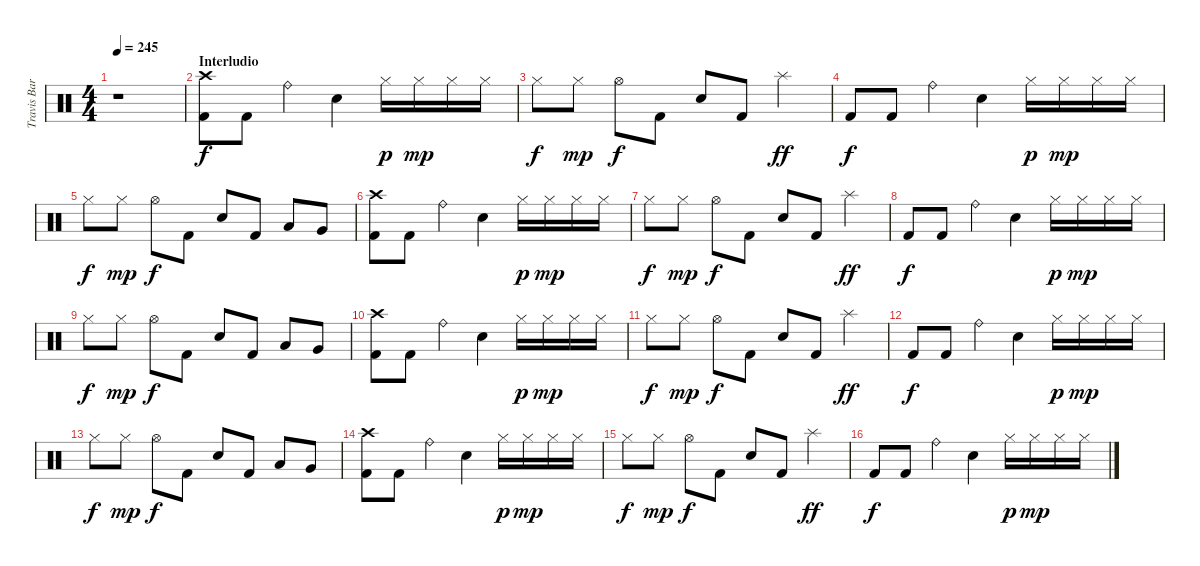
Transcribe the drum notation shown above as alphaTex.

\track ("Travis Barker - Batería" "Travis Bar") {instrument percussion}
\staff {score}
\articulation defaults
\ts (4 4)
\tempo 245
\clef neutral
\ks c
r.1{dy f} |
\section ("" "Interludio")
("Crash high (hit)" "Kick (hit) 2").8 "Kick (hit) 2".8 "Ride (bell)".4 "Electric Snare (hit)".4 "Hi-Hat (closed)".16{dy p} "Hi-Hat (closed)".16{dy mp} "Hi-Hat (closed)".16 "Hi-Hat (closed)".16 |
"Hi-Hat (closed)".8{dy f} "Hi-Hat (closed)".8{dy mp} "Hi-Hat (open)".8{dy f} "Kick (hit) 2".8 "Electric Snare (hit)".8 "Kick (hit) 2".8 "Splash (hit)".4{dy ff} |
"Kick (hit) 2".8{dy f} "Kick (hit) 2".8 "Ride (bell)".4 "Electric Snare (hit)".4 "Hi-Hat (closed)".16{dy p} "Hi-Hat (closed)".16{dy mp} "Hi-Hat (closed)".16 "Hi-Hat (closed)".16 |
"Hi-Hat (closed)".8{dy f} "Hi-Hat (closed)".8{dy mp} "Hi-Hat (open)".8{dy f} "Kick (hit) 2".8 "Electric Snare (hit)".8 "Kick (hit) 2".8 "Low Tom (hit)".8 "Very Low Tom (hit)".8 |
("Crash high (hit)" "Kick (hit) 2").8 "Kick (hit) 2".8 "Ride (bell)".4 "Electric Snare (hit)".4 "Hi-Hat (closed)".16{dy p} "Hi-Hat (closed)".16{dy mp} "Hi-Hat (closed)".16 "Hi-Hat (closed)".16 |
"Hi-Hat (closed)".8{dy f} "Hi-Hat (closed)".8{dy mp} "Hi-Hat (open)".8{dy f} "Kick (hit) 2".8 "Electric Snare (hit)".8 "Kick (hit) 2".8 "Splash (hit)".4{dy ff} |
"Kick (hit) 2".8{dy f} "Kick (hit) 2".8 "Ride (bell)".4 "Electric Snare (hit)".4 "Hi-Hat (closed)".16{dy p} "Hi-Hat (closed)".16{dy mp} "Hi-Hat (closed)".16 "Hi-Hat (closed)".16 |
"Hi-Hat (closed)".8{dy f} "Hi-Hat (closed)".8{dy mp} "Hi-Hat (open)".8{dy f} "Kick (hit) 2".8 "Electric Snare (hit)".8 "Kick (hit) 2".8 "Low Tom (hit)".8 "Very Low Tom (hit)".8 |
("Crash high (hit)" "Kick (hit) 2").8 "Kick (hit) 2".8 "Ride (bell)".4 "Electric Snare (hit)".4 "Hi-Hat (closed)".16{dy p} "Hi-Hat (closed)".16{dy mp} "Hi-Hat (closed)".16 "Hi-Hat (closed)".16 |
"Hi-Hat (closed)".8{dy f} "Hi-Hat (closed)".8{dy mp} "Hi-Hat (open)".8{dy f} "Kick (hit) 2".8 "Electric Snare (hit)".8 "Kick (hit) 2".8 "Splash (hit)".4{dy ff} |
"Kick (hit) 2".8{dy f} "Kick (hit) 2".8 "Ride (bell)".4 "Electric Snare (hit)".4 "Hi-Hat (closed)".16{dy p} "Hi-Hat (closed)".16{dy mp} "Hi-Hat (closed)".16 "Hi-Hat (closed)".16 |
"Hi-Hat (closed)".8{dy f} "Hi-Hat (closed)".8{dy mp} "Hi-Hat (open)".8{dy f} "Kick (hit) 2".8 "Electric Snare (hit)".8 "Kick (hit) 2".8 "Low Tom (hit)".8 "Very Low Tom (hit)".8 |
("Crash high (hit)" "Kick (hit) 2").8 "Kick (hit) 2".8 "Ride (bell)".4 "Electric Snare (hit)".4 "Hi-Hat (closed)".16{dy p} "Hi-Hat (closed)".16{dy mp} "Hi-Hat (closed)".16 "Hi-Hat (closed)".16 |
"Hi-Hat (closed)".8{dy f} "Hi-Hat (closed)".8{dy mp} "Hi-Hat (open)".8{dy f} "Kick (hit) 2".8 "Electric Snare (hit)".8 "Kick (hit) 2".8 "Splash (hit)".4{dy ff} |
"Kick (hit) 2".8{dy f} "Kick (hit) 2".8 "Ride (bell)".4 "Electric Snare (hit)".4 "Hi-Hat (closed)".16{dy p} "Hi-Hat (closed)".16{dy mp} "Hi-Hat (closed)".16 "Hi-Hat (closed)".16
